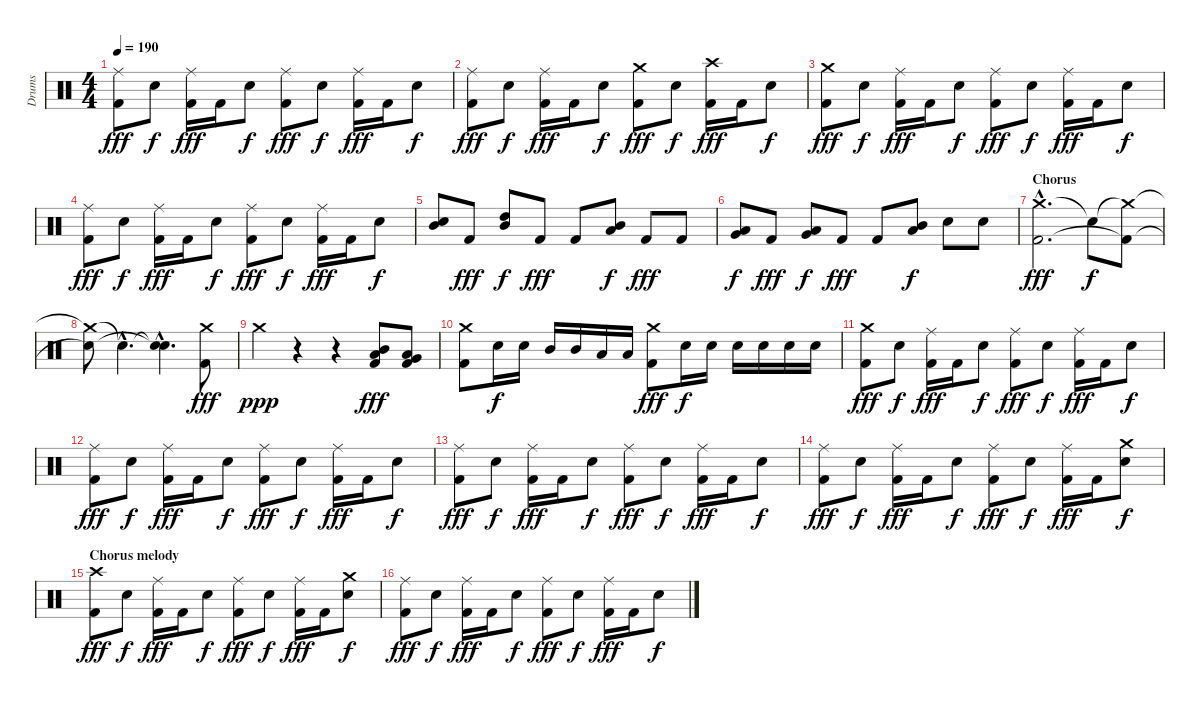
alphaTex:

\track ("Drums" "Drums") {instrument percussion}
\staff {score}
\articulation defaults
\ts (4 4)
\tempo 190
\clef neutral
\ks c
("Ride (middle)" "Kick (hit) 2").8{dy fff} "Snare (hit) 2".8{dy f} ("Ride (middle)" "Kick (hit) 2").16{dy fff} "Kick (hit) 2".16 "Snare (hit) 2".8{dy f} ("Ride (middle)" "Kick (hit) 2").8{dy fff} "Snare (hit) 2".8{dy f} ("Ride (middle)" "Kick (hit) 2").16{dy fff} "Kick (hit) 2".16 "Snare (hit) 2".8{dy f} |
("Ride (middle)" "Kick (hit) 2").8{dy fff} "Snare (hit) 2".8{dy f} ("Ride (middle)" "Kick (hit) 2").16{dy fff} "Kick (hit) 2".16 "Snare (hit) 2".8{dy f} ("Crash medium (hit)" "Kick (hit) 2").8{dy fff} "Snare (hit) 2".8{dy f} ("Crash high (hit)" "Kick (hit) 2").16{dy fff} "Kick (hit) 2".16 "Snare (hit) 2".8{dy f} |
("Crash medium (hit)" "Kick (hit) 2").8{dy fff} "Snare (hit) 2".8{dy f} ("Ride (middle)" "Kick (hit) 2").16{dy fff} "Kick (hit) 2".16 "Snare (hit) 2".8{dy f} ("Ride (middle)" "Kick (hit) 2").8{dy fff} "Snare (hit) 2".8{dy f} ("Ride (middle)" "Kick (hit) 2").16{dy fff} "Kick (hit) 2".16 "Snare (hit) 2".8{dy f} |
("Ride (middle)" "Kick (hit) 2").8{dy fff} "Snare (hit) 2".8{dy f} ("Ride (middle)" "Kick (hit) 2").16{dy fff} "Kick (hit) 2".16 "Snare (hit) 2".8{dy f} ("Ride (middle)" "Kick (hit) 2").8{dy fff} "Snare (hit) 2".8{dy f} ("Ride (middle)" "Kick (hit) 2").16{dy fff} "Kick (hit) 2".16 "Snare (hit) 2".8{dy f} |
("Snare (hit) 2" "Mid Tom (hit)").8 "Kick (hit) 2".8{dy fff} ("High Tom (hit)" "Mid Tom (hit)").8{dy f} "Kick (hit) 2".8{dy fff} "Kick (hit) 2".8 ("Mid Tom (hit)" "Low Tom (hit)").8{dy f} "Kick (hit) 2".8{dy fff} "Kick (hit) 2".8 |
("Low Tom (hit)" "Very Low Tom (hit)").8{dy f} "Kick (hit) 2".8{dy fff} ("Low Floor Tom (hit)" "Very Low Tom (hit)").8{dy f} "Kick (hit) 2".8{dy fff} "Kick (hit) 2".8 ("Mid Tom (hit)" "Low Tom (hit)").8{dy f} "Snare (hit) 2".8 "Snare (hit) 2".8 |
\section ("" "Chorus")
("Crash medium (hit)"{hac} "Kick (hit) 2"{hac}).2{d dy fff} "Snare (hit)"{t}.8{dy f} ("Crash medium (hit)"{t} "Kick (hit) 2"{t}).8 |
("Crash medium (hit)"{t} "Snare (hit)"{t}).8 "Snare (hit)"{hac t}.4{d} ("Snare (hit)"{hac t} "Snare (hit)"{hac t}).4{d} ("Crash medium (hit)" "Kick (hit) 2").8{dy fff} |
"Crash medium (hit)".4{dy ppp} r.4 r.4 ("Mid Tom (hit)" "Low Tom (hit)" "Kick (hit) 2").8{dy fff} ("Low Tom (hit)" "Very Low Tom (hit)" "Kick (hit) 2").8 |
("Crash medium (hit)" "Kick (hit) 2").8 "Snare (hit) 2".16{dy f} "Snare (hit) 2".16 "Mid Tom (hit)".16 "Mid Tom (hit)".16 "Low Tom (hit)".16 "Low Tom (hit)".16 ("Crash medium (hit)" "Kick (hit) 2").8{dy fff} "Snare (hit) 2".16{dy f} "Snare (hit) 2".16 "Snare (hit) 2".16 "Snare (hit) 2".16 "Snare (hit) 2".16 "Snare (hit) 2".16 |
("Crash medium (hit)" "Kick (hit) 2").8{dy fff} "Snare (hit) 2".8{dy f} ("Ride (middle)" "Kick (hit) 2").16{dy fff} "Kick (hit) 2".16 "Snare (hit) 2".8{dy f} ("Ride (middle)" "Kick (hit) 2").8{dy fff} "Snare (hit) 2".8{dy f} ("Ride (middle)" "Kick (hit) 2").16{dy fff} "Kick (hit) 2".16 "Snare (hit) 2".8{dy f} |
("Ride (middle)" "Kick (hit) 2").8{dy fff} "Snare (hit) 2".8{dy f} ("Ride (middle)" "Kick (hit) 2").16{dy fff} "Kick (hit) 2".16 "Snare (hit) 2".8{dy f} ("Ride (middle)" "Kick (hit) 2").8{dy fff} "Snare (hit) 2".8{dy f} ("Ride (middle)" "Kick (hit) 2").16{dy fff} "Kick (hit) 2".16 "Snare (hit) 2".8{dy f} |
("Ride (middle)" "Kick (hit) 2").8{dy fff} "Snare (hit) 2".8{dy f} ("Ride (middle)" "Kick (hit) 2").16{dy fff} "Kick (hit) 2".16 "Snare (hit) 2".8{dy f} ("Ride (middle)" "Kick (hit) 2").8{dy fff} "Snare (hit) 2".8{dy f} ("Ride (middle)" "Kick (hit) 2").16{dy fff} "Kick (hit) 2".16 "Snare (hit) 2".8{dy f} |
("Ride (middle)" "Kick (hit) 2").8{dy fff} "Snare (hit) 2".8{dy f} ("Ride (middle)" "Kick (hit) 2").16{dy fff} "Kick (hit) 2".16 "Snare (hit) 2".8{dy f} ("Ride (middle)" "Kick (hit) 2").8{dy fff} "Snare (hit) 2".8{dy f} ("Ride (middle)" "Kick (hit) 2").16{dy fff} "Kick (hit) 2".16 ("Crash medium (hit)" "Snare (hit) 2").8{dy f} |
\section ("" "Chorus melody")
("Crash high (hit)" "Kick (hit) 2").8{dy fff} "Snare (hit) 2".8{dy f} ("Ride (middle)" "Kick (hit) 2").16{dy fff} "Kick (hit) 2".16 "Snare (hit) 2".8{dy f} ("Ride (middle)" "Kick (hit) 2").8{dy fff} "Snare (hit) 2".8{dy f} ("Ride (middle)" "Kick (hit) 2").16{dy fff} "Kick (hit) 2".16 ("Crash medium (hit)" "Snare (hit) 2").8{dy f} |
("Ride (middle)" "Kick (hit) 2").8{dy fff} "Snare (hit) 2".8{dy f} ("Ride (middle)" "Kick (hit) 2").16{dy fff} "Kick (hit) 2".16 "Snare (hit) 2".8{dy f} ("Ride (middle)" "Kick (hit) 2").8{dy fff} "Snare (hit) 2".8{dy f} ("Ride (middle)" "Kick (hit) 2").16{dy fff} "Kick (hit) 2".16 "Snare (hit) 2".8{dy f}
